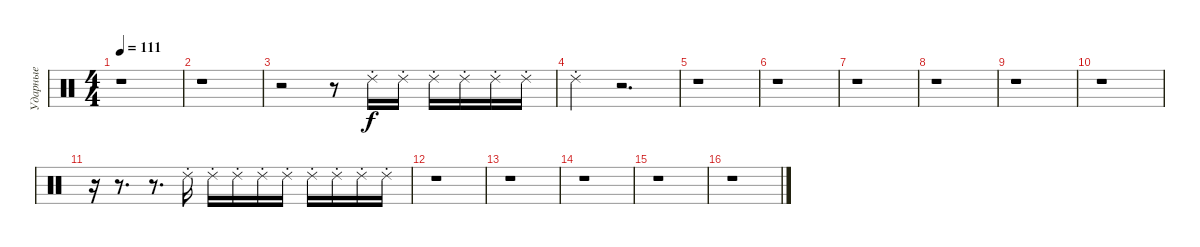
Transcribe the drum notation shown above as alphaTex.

\track ("Ударные" "Ударные") {instrument percussion}
\staff {score}
\articulation defaults
\ts (4 4)
\tempo 111
\clef neutral
\ks c
r.1{dy f} |
r.1 |
r.2 r.8 "Ride (choke) 2".16 "Ride (choke) 2".16 "Ride (choke) 2".16 "Ride (choke) 2".16 "Ride (choke) 2".16 "Ride (choke) 2".16 |
"Ride (choke) 2".4 r.2{d} |
r.1 |
r.1 |
r.1 |
r.1 |
r.1 |
r.1 |
r.16 r.8{d} r.8{d} "Ride (choke) 2".16 "Ride (choke) 2".16 "Ride (choke) 2".16 "Ride (choke) 2".16 "Ride (choke) 2".16 "Ride (choke) 2".16 "Ride (choke) 2".16 "Ride (choke) 2".16 "Ride (choke) 2".16 |
r.1 |
r.1 |
r.1 |
r.1 |
r.1
